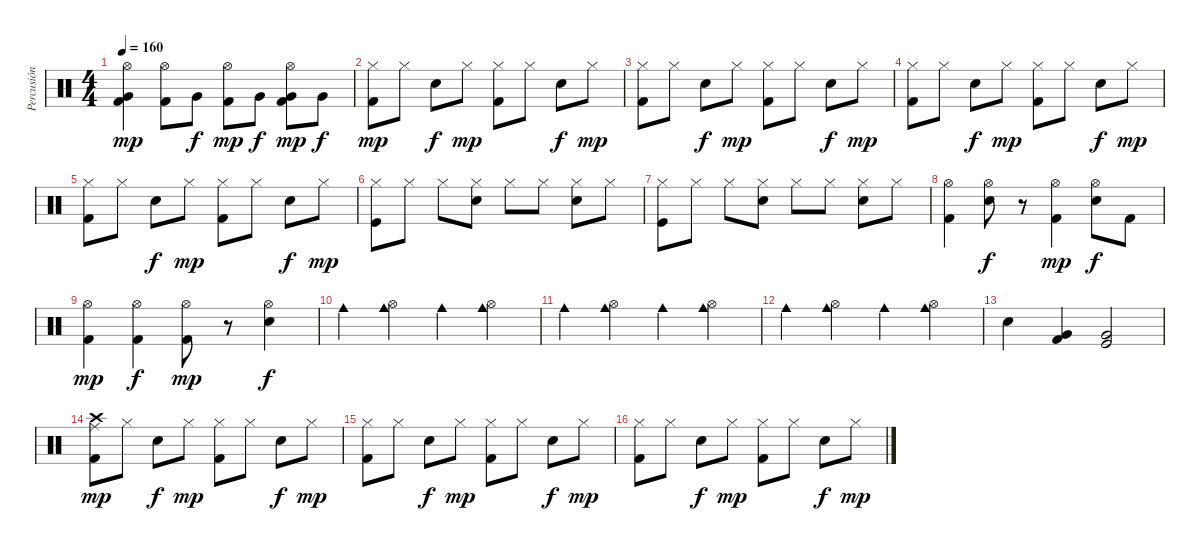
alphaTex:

\track ("Percusión" "Percusión") {instrument percussion}
\staff {score}
\articulation defaults
\ts (4 4)
\tempo 160
\clef neutral
\ks c
("Hi-Hat (open)" "Very Low Tom (hit)" "Kick (hit) 2").4{dy mp} ("Hi-Hat (open)" "Kick (hit) 2").8 "Very Low Tom (hit)".8{dy f} ("Hi-Hat (open)" "Kick (hit) 2").8{dy mp} "Very Low Tom (hit)".8{dy f} ("Hi-Hat (open)" "Very Low Tom (hit)" "Kick (hit) 2").8{dy mp} "Very Low Tom (hit)".8{dy f} |
("Hi-Hat (closed)" "Kick (hit) 2").8{dy mp} "Hi-Hat (closed)".8 "Snare (hit) 2".8{dy f} "Hi-Hat (closed)".8{dy mp} ("Hi-Hat (closed)" "Kick (hit) 2").8 "Hi-Hat (closed)".8 "Snare (hit) 2".8{dy f} "Hi-Hat (closed)".8{dy mp} |
("Hi-Hat (closed)" "Kick (hit) 2").8 "Hi-Hat (closed)".8 "Snare (hit) 2".8{dy f} "Hi-Hat (closed)".8{dy mp} ("Hi-Hat (closed)" "Kick (hit) 2").8 "Hi-Hat (closed)".8 "Snare (hit) 2".8{dy f} "Hi-Hat (closed)".8{dy mp} |
("Hi-Hat (closed)" "Kick (hit) 2").8 "Hi-Hat (closed)".8 "Snare (hit) 2".8{dy f} "Hi-Hat (closed)".8{dy mp} ("Hi-Hat (closed)" "Kick (hit) 2").8 "Hi-Hat (closed)".8 "Snare (hit) 2".8{dy f} "Hi-Hat (closed)".8{dy mp} |
("Hi-Hat (closed)" "Kick (hit) 2").8 "Hi-Hat (closed)".8 "Snare (hit) 2".8{dy f} "Hi-Hat (closed)".8{dy mp} ("Hi-Hat (closed)" "Kick (hit) 2").8 "Hi-Hat (closed)".8 "Snare (hit) 2".8{dy f} "Hi-Hat (closed)".8{dy mp} |
("Hi-Hat (closed)" "Kick (hit)").8 "Hi-Hat (closed)".8 "Hi-Hat (closed)".8 ("Hi-Hat (closed)" "Snare (hit) 2").8 "Hi-Hat (closed)".8 "Hi-Hat (closed)".8 ("Hi-Hat (closed)" "Snare (hit) 2").8 "Hi-Hat (closed)".8 |
("Hi-Hat (closed)" "Kick (hit)").8 "Hi-Hat (closed)".8 "Hi-Hat (closed)".8 ("Hi-Hat (closed)" "Snare (hit) 2").8 "Hi-Hat (closed)".8 "Hi-Hat (closed)".8 ("Hi-Hat (closed)" "Snare (hit) 2").8 "Hi-Hat (closed)".8 |
("Hi-Hat (open)" "Kick (hit) 2").4 ("Hi-Hat (open)" "Snare (hit) 2").8{dy f} r.8 ("Hi-Hat (open)" "Kick (hit) 2").4{dy mp} ("Hi-Hat (open)" "Snare (hit) 2").8{dy f} "Kick (hit) 2".8 |
("Hi-Hat (open)" "Kick (hit) 2").4{dy mp} ("Hi-Hat (open)" "Kick (hit) 2").4{dy f} ("Hi-Hat (open)" "Kick (hit) 2").8{dy mp} r.8 ("Hi-Hat (open)" "Snare (hit) 2").4{dy f} |
"Cowbell medium (hit)".4 ("Cowbell medium (hit)" "Hi-Hat (open)").4 "Cowbell medium (hit)".4 ("Cowbell medium (hit)" "Hi-Hat (open)").4 |
"Cowbell medium (hit)".4 ("Cowbell medium (hit)" "Hi-Hat (open)").4 "Cowbell medium (hit)".4 ("Cowbell medium (hit)" "Hi-Hat (open)").4 |
"Cowbell medium (hit)".4 ("Cowbell medium (hit)" "Hi-Hat (open)").4 "Cowbell medium (hit)".4 ("Cowbell medium (hit)" "Hi-Hat (open)").4 |
"Snare (hit) 2".4 ("Very Low Tom (hit)" "Kick (hit) 2").4 ("Very Low Tom (hit)" "Kick (hit)").2 |
("Crash high (hit)" "Ride (middle)" "Kick (hit) 2").8{dy mp} "Hi-Hat (closed)".8 "Snare (hit) 2".8{dy f} "Hi-Hat (closed)".8{dy mp} ("Hi-Hat (closed)" "Kick (hit) 2").8 "Hi-Hat (closed)".8 "Snare (hit) 2".8{dy f} "Hi-Hat (closed)".8{dy mp} |
("Hi-Hat (closed)" "Kick (hit) 2").8 "Hi-Hat (closed)".8 "Snare (hit) 2".8{dy f} "Hi-Hat (closed)".8{dy mp} ("Hi-Hat (closed)" "Kick (hit) 2").8 "Hi-Hat (closed)".8 "Snare (hit) 2".8{dy f} "Hi-Hat (closed)".8{dy mp} |
("Hi-Hat (closed)" "Kick (hit) 2").8 "Hi-Hat (closed)".8 "Snare (hit) 2".8{dy f} "Hi-Hat (closed)".8{dy mp} ("Hi-Hat (closed)" "Kick (hit) 2").8 "Hi-Hat (closed)".8 "Snare (hit) 2".8{dy f} "Hi-Hat (closed)".8{dy mp}
